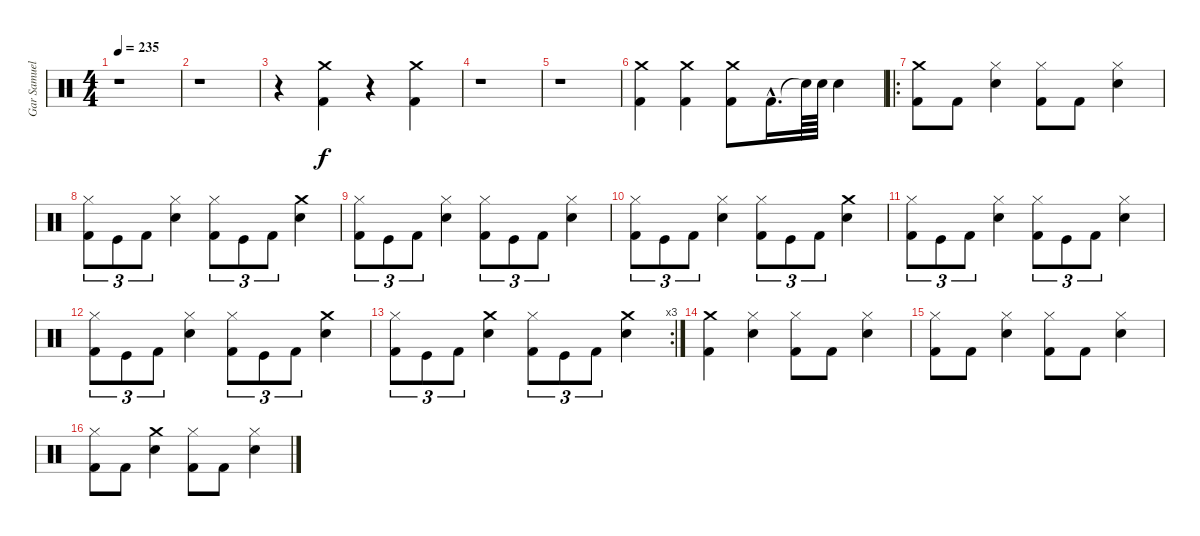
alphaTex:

\track ("Gar Samuelson (Drums)" "Gar Samuel") {instrument percussion}
\staff {score}
\articulation defaults
\ts (4 4)
\tempo 235
\clef neutral
\ks c
r.1{dy f} |
r.1 |
r.4 ("Kick (hit) 2" "Crash medium (hit)").4 r.4 ("Kick (hit) 2" "Crash medium (hit)").4 |
r.1 |
r.1 |
("Kick (hit) 2" "Crash medium (hit)").4 ("Kick (hit) 2" "Crash medium (hit)").4 ("Kick (hit) 2" "Crash medium (hit)").8 "Kick (hit) 2"{hac}.16{d} "Snare (hit)"{t}.64 "Snare (hit) 2".64 "Snare (hit) 2".4 |
\ro
("Crash medium (hit)" "Kick (hit) 2").8 "Kick (hit) 2".8 ("Hi-Hat (closed)" "Snare (hit) 2").4 ("Hi-Hat (closed)" "Kick (hit) 2").8 "Kick (hit) 2".8 ("Snare (hit) 2" "Hi-Hat (closed)").4 |
("Hi-Hat (closed)" "Kick (hit) 2").8{tu (3 2)} "Kick (hit)".8{tu (3 2)} "Kick (hit) 2".8{tu (3 2)} ("Snare (hit) 2" "Hi-Hat (closed)").4 ("Hi-Hat (closed)" "Kick (hit) 2").8{tu (3 2)} "Kick (hit)".8{tu (3 2)} "Kick (hit) 2".8{tu (3 2)} ("Crash medium (hit)" "Snare (hit) 2").4 |
("Hi-Hat (closed)" "Kick (hit) 2").8{tu (3 2)} "Kick (hit)".8{tu (3 2)} "Kick (hit) 2".8{tu (3 2)} ("Snare (hit) 2" "Hi-Hat (closed)").4 ("Hi-Hat (closed)" "Kick (hit) 2").8{tu (3 2)} "Kick (hit)".8{tu (3 2)} "Kick (hit) 2".8{tu (3 2)} ("Hi-Hat (closed)" "Snare (hit) 2").4 |
("Hi-Hat (closed)" "Kick (hit) 2").8{tu (3 2)} "Kick (hit)".8{tu (3 2)} "Kick (hit) 2".8{tu (3 2)} ("Snare (hit) 2" "Hi-Hat (closed)").4 ("Hi-Hat (closed)" "Kick (hit) 2").8{tu (3 2)} "Kick (hit)".8{tu (3 2)} "Kick (hit) 2".8{tu (3 2)} ("Crash medium (hit)" "Snare (hit) 2").4 |
("Hi-Hat (closed)" "Kick (hit) 2").8{tu (3 2)} "Kick (hit)".8{tu (3 2)} "Kick (hit) 2".8{tu (3 2)} ("Snare (hit) 2" "Hi-Hat (closed)").4 ("Hi-Hat (closed)" "Kick (hit) 2").8{tu (3 2)} "Kick (hit)".8{tu (3 2)} "Kick (hit) 2".8{tu (3 2)} ("Hi-Hat (closed)" "Snare (hit) 2").4 |
("Hi-Hat (closed)" "Kick (hit) 2").8{tu (3 2)} "Kick (hit)".8{tu (3 2)} "Kick (hit) 2".8{tu (3 2)} ("Snare (hit) 2" "Hi-Hat (closed)").4 ("Hi-Hat (closed)" "Kick (hit) 2").8{tu (3 2)} "Kick (hit)".8{tu (3 2)} "Kick (hit) 2".8{tu (3 2)} ("Crash medium (hit)" "Snare (hit) 2").4 |
\rc 3
("Hi-Hat (closed)" "Kick (hit) 2").8{tu (3 2)} "Kick (hit)".8{tu (3 2)} "Kick (hit) 2".8{tu (3 2)} ("Crash medium (hit)" "Snare (hit) 2").4 ("Hi-Hat (closed)" "Kick (hit) 2").8{tu (3 2)} "Kick (hit)".8{tu (3 2)} "Kick (hit) 2".8{tu (3 2)} ("Crash medium (hit)" "Snare (hit) 2").4 |
("Kick (hit) 2" "Crash medium (hit)").4 ("Hi-Hat (closed)" "Snare (hit) 2").4 ("Hi-Hat (closed)" "Kick (hit) 2").8 "Kick (hit) 2".8 ("Snare (hit) 2" "Hi-Hat (closed)").4 |
("Kick (hit) 2" "Hi-Hat (closed)").8 "Kick (hit) 2".8 ("Snare (hit) 2" "Hi-Hat (closed)").4 ("Kick (hit) 2" "Hi-Hat (closed)").8 "Kick (hit) 2".8 ("Snare (hit) 2" "Hi-Hat (closed)").4 |
("Kick (hit) 2" "Hi-Hat (closed)").8 "Kick (hit) 2".8 ("Crash medium (hit)" "Snare (hit) 2").4 ("Kick (hit) 2" "Hi-Hat (closed)").8 "Kick (hit) 2".8 ("Snare (hit) 2" "Hi-Hat (closed)").4
